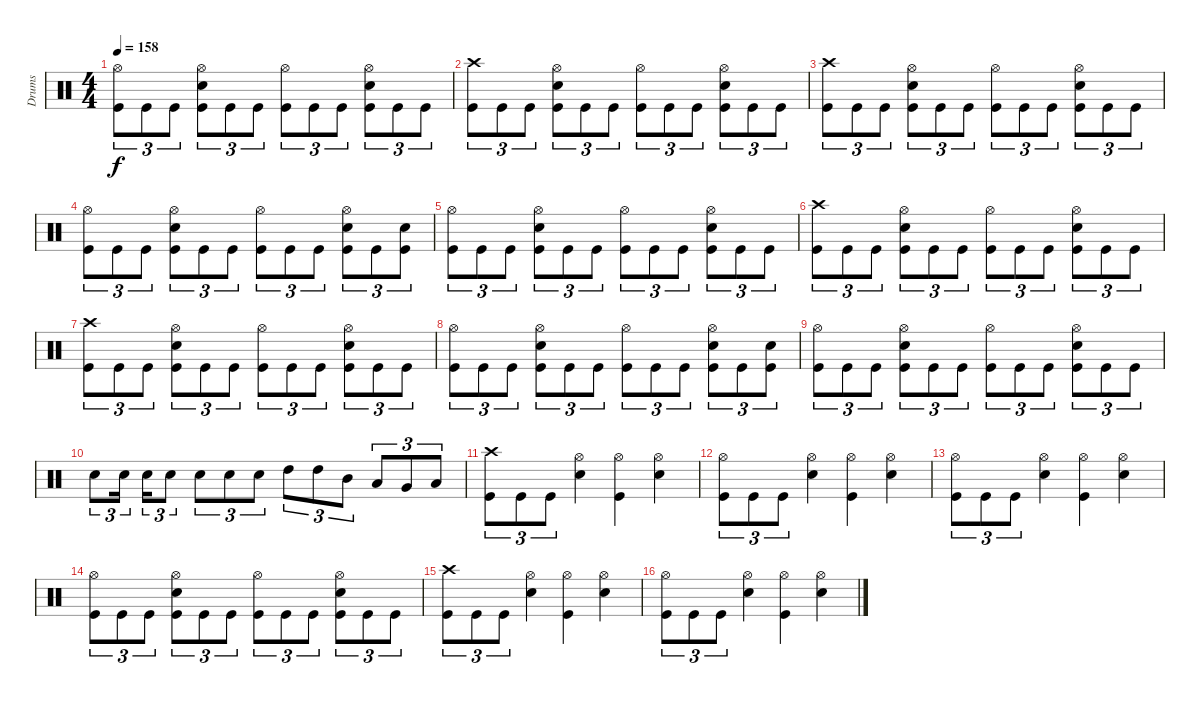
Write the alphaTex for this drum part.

\track ("Drums" "Drums") {instrument percussion}
\staff {score}
\articulation defaults
\ts (4 4)
\tempo 158
\clef neutral
\ks c
("Hi-Hat (open)" "Kick (hit)").8{tu (3 2) dy f} "Kick (hit)".8{tu (3 2)} "Kick (hit)".8{tu (3 2)} ("Hi-Hat (open)" "Electric Snare (hit)" "Kick (hit)").8{tu (3 2)} "Kick (hit)".8{tu (3 2)} "Kick (hit)".8{tu (3 2)} ("Hi-Hat (open)" "Kick (hit)").8{tu (3 2)} "Kick (hit)".8{tu (3 2)} "Kick (hit)".8{tu (3 2)} ("Hi-Hat (open)" "Electric Snare (hit)" "Kick (hit)").8{tu (3 2)} "Kick (hit)".8{tu (3 2)} "Kick (hit)".8{tu (3 2)} |
("Crash high (hit)" "Kick (hit)").8{tu (3 2)} "Kick (hit)".8{tu (3 2)} "Kick (hit)".8{tu (3 2)} ("Hi-Hat (open)" "Electric Snare (hit)" "Kick (hit)").8{tu (3 2)} "Kick (hit)".8{tu (3 2)} "Kick (hit)".8{tu (3 2)} ("Hi-Hat (open)" "Kick (hit)").8{tu (3 2)} "Kick (hit)".8{tu (3 2)} "Kick (hit)".8{tu (3 2)} ("Hi-Hat (open)" "Electric Snare (hit)" "Kick (hit)").8{tu (3 2)} "Kick (hit)".8{tu (3 2)} "Kick (hit)".8{tu (3 2)} |
("Crash high (hit)" "Kick (hit)").8{tu (3 2)} "Kick (hit)".8{tu (3 2)} "Kick (hit)".8{tu (3 2)} ("Hi-Hat (open)" "Electric Snare (hit)" "Kick (hit)").8{tu (3 2)} "Kick (hit)".8{tu (3 2)} "Kick (hit)".8{tu (3 2)} ("Hi-Hat (open)" "Kick (hit)").8{tu (3 2)} "Kick (hit)".8{tu (3 2)} "Kick (hit)".8{tu (3 2)} ("Hi-Hat (open)" "Electric Snare (hit)" "Kick (hit)").8{tu (3 2)} "Kick (hit)".8{tu (3 2)} "Kick (hit)".8{tu (3 2)} |
("Hi-Hat (open)" "Kick (hit)").8{tu (3 2)} "Kick (hit)".8{tu (3 2)} "Kick (hit)".8{tu (3 2)} ("Hi-Hat (open)" "Electric Snare (hit)" "Kick (hit)").8{tu (3 2)} "Kick (hit)".8{tu (3 2)} "Kick (hit)".8{tu (3 2)} ("Hi-Hat (open)" "Kick (hit)").8{tu (3 2)} "Kick (hit)".8{tu (3 2)} "Kick (hit)".8{tu (3 2)} ("Hi-Hat (open)" "Electric Snare (hit)" "Kick (hit)").8{tu (3 2)} "Kick (hit)".8{tu (3 2)} ("Electric Snare (hit)" "Kick (hit)").8{tu (3 2)} |
("Hi-Hat (open)" "Kick (hit)").8{tu (3 2)} "Kick (hit)".8{tu (3 2)} "Kick (hit)".8{tu (3 2)} ("Hi-Hat (open)" "Electric Snare (hit)" "Kick (hit)").8{tu (3 2)} "Kick (hit)".8{tu (3 2)} "Kick (hit)".8{tu (3 2)} ("Hi-Hat (open)" "Kick (hit)").8{tu (3 2)} "Kick (hit)".8{tu (3 2)} "Kick (hit)".8{tu (3 2)} ("Hi-Hat (open)" "Electric Snare (hit)" "Kick (hit)").8{tu (3 2)} "Kick (hit)".8{tu (3 2)} "Kick (hit)".8{tu (3 2)} |
("Crash high (hit)" "Kick (hit)").8{tu (3 2)} "Kick (hit)".8{tu (3 2)} "Kick (hit)".8{tu (3 2)} ("Hi-Hat (open)" "Electric Snare (hit)" "Kick (hit)").8{tu (3 2)} "Kick (hit)".8{tu (3 2)} "Kick (hit)".8{tu (3 2)} ("Hi-Hat (open)" "Kick (hit)").8{tu (3 2)} "Kick (hit)".8{tu (3 2)} "Kick (hit)".8{tu (3 2)} ("Hi-Hat (open)" "Electric Snare (hit)" "Kick (hit)").8{tu (3 2)} "Kick (hit)".8{tu (3 2)} "Kick (hit)".8{tu (3 2)} |
("Crash high (hit)" "Kick (hit)").8{tu (3 2)} "Kick (hit)".8{tu (3 2)} "Kick (hit)".8{tu (3 2)} ("Hi-Hat (open)" "Electric Snare (hit)" "Kick (hit)").8{tu (3 2)} "Kick (hit)".8{tu (3 2)} "Kick (hit)".8{tu (3 2)} ("Hi-Hat (open)" "Kick (hit)").8{tu (3 2)} "Kick (hit)".8{tu (3 2)} "Kick (hit)".8{tu (3 2)} ("Hi-Hat (open)" "Electric Snare (hit)" "Kick (hit)").8{tu (3 2)} "Kick (hit)".8{tu (3 2)} "Kick (hit)".8{tu (3 2)} |
("Hi-Hat (open)" "Kick (hit)").8{tu (3 2)} "Kick (hit)".8{tu (3 2)} "Kick (hit)".8{tu (3 2)} ("Hi-Hat (open)" "Electric Snare (hit)" "Kick (hit)").8{tu (3 2)} "Kick (hit)".8{tu (3 2)} "Kick (hit)".8{tu (3 2)} ("Hi-Hat (open)" "Kick (hit)").8{tu (3 2)} "Kick (hit)".8{tu (3 2)} "Kick (hit)".8{tu (3 2)} ("Hi-Hat (open)" "Electric Snare (hit)" "Kick (hit)").8{tu (3 2)} "Kick (hit)".8{tu (3 2)} ("Electric Snare (hit)" "Kick (hit)").8{tu (3 2)} |
("Hi-Hat (open)" "Kick (hit)").8{tu (3 2)} "Kick (hit)".8{tu (3 2)} "Kick (hit)".8{tu (3 2)} ("Hi-Hat (open)" "Electric Snare (hit)" "Kick (hit)").8{tu (3 2)} "Kick (hit)".8{tu (3 2)} "Kick (hit)".8{tu (3 2)} ("Hi-Hat (open)" "Kick (hit)").8{tu (3 2)} "Kick (hit)".8{tu (3 2)} "Kick (hit)".8{tu (3 2)} ("Hi-Hat (open)" "Electric Snare (hit)" "Kick (hit)").8{tu (3 2)} "Kick (hit)".8{tu (3 2)} "Kick (hit)".8{tu (3 2)} |
"Electric Snare (hit)".8{tu (3 2)} "Electric Snare (hit)".16{tu (3 2) beam splitsecondary} "Electric Snare (hit)".16{tu (3 2)} "Electric Snare (hit)".8{tu (3 2)} "Electric Snare (hit)".8{tu (3 2)} "Electric Snare (hit)".8{tu (3 2)} "Electric Snare (hit)".8{tu (3 2)} "High Tom (hit)".8{tu (3 2)} "High Tom (hit)".8{tu (3 2)} "Mid Tom (hit)".8{tu (3 2)} "Low Tom (hit)".8{tu (3 2)} "Very Low Tom (hit)".8{tu (3 2)} "Low Floor Tom (hit)".8{tu (3 2)} |
("Crash high (hit)" "Kick (hit)").8{tu (3 2)} "Kick (hit)".8{tu (3 2)} "Kick (hit)".8{tu (3 2)} ("Hi-Hat (open)" "Electric Snare (hit)").4 ("Hi-Hat (open)" "Kick (hit)").4 ("Hi-Hat (open)" "Electric Snare (hit)").4 |
("Hi-Hat (open)" "Kick (hit)").8{tu (3 2)} "Kick (hit)".8{tu (3 2)} "Kick (hit)".8{tu (3 2)} ("Hi-Hat (open)" "Electric Snare (hit)").4 ("Hi-Hat (open)" "Kick (hit)").4 ("Hi-Hat (open)" "Electric Snare (hit)").4 |
("Hi-Hat (open)" "Kick (hit)").8{tu (3 2)} "Kick (hit)".8{tu (3 2)} "Kick (hit)".8{tu (3 2)} ("Hi-Hat (open)" "Electric Snare (hit)").4 ("Hi-Hat (open)" "Kick (hit)").4 ("Hi-Hat (open)" "Electric Snare (hit)").4 |
("Hi-Hat (open)" "Kick (hit)").8{tu (3 2)} "Kick (hit)".8{tu (3 2)} "Kick (hit)".8{tu (3 2)} ("Hi-Hat (open)" "Electric Snare (hit)" "Kick (hit)").8{tu (3 2)} "Kick (hit)".8{tu (3 2)} "Kick (hit)".8{tu (3 2)} ("Hi-Hat (open)" "Kick (hit)").8{tu (3 2)} "Kick (hit)".8{tu (3 2)} "Kick (hit)".8{tu (3 2)} ("Hi-Hat (open)" "Electric Snare (hit)" "Kick (hit)").8{tu (3 2)} "Kick (hit)".8{tu (3 2)} "Kick (hit)".8{tu (3 2)} |
("Crash high (hit)" "Kick (hit)").8{tu (3 2)} "Kick (hit)".8{tu (3 2)} "Kick (hit)".8{tu (3 2)} ("Hi-Hat (open)" "Electric Snare (hit)").4 ("Hi-Hat (open)" "Kick (hit)").4 ("Hi-Hat (open)" "Electric Snare (hit)").4 |
("Hi-Hat (open)" "Kick (hit)").8{tu (3 2)} "Kick (hit)".8{tu (3 2)} "Kick (hit)".8{tu (3 2)} ("Hi-Hat (open)" "Electric Snare (hit)").4 ("Hi-Hat (open)" "Kick (hit)").4 ("Hi-Hat (open)" "Electric Snare (hit)").4
